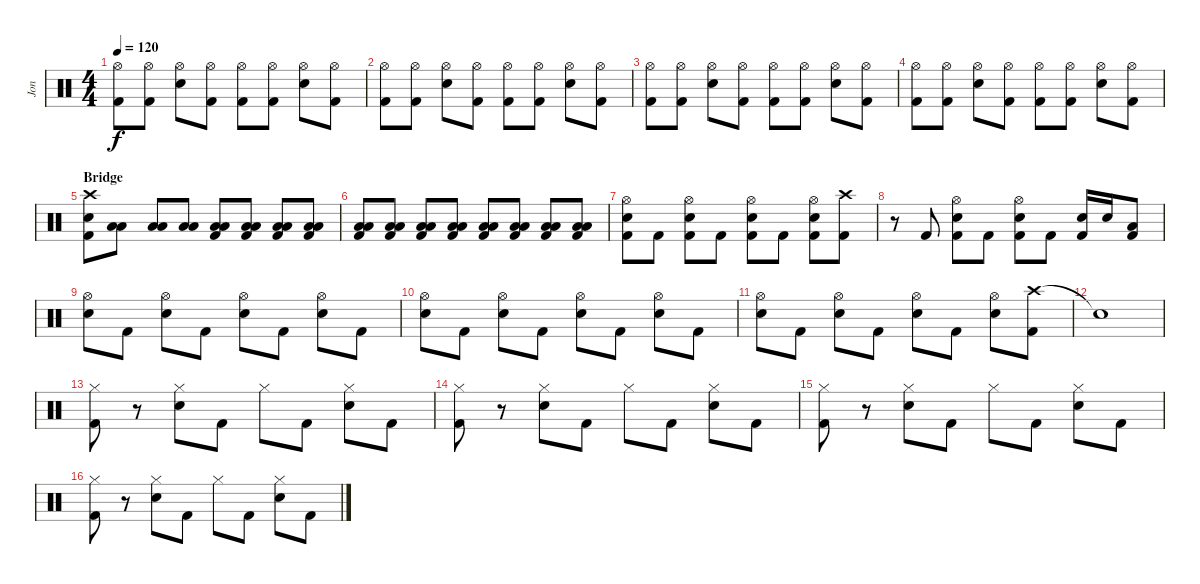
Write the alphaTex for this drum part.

\track ("Jon" "Jon") {instrument percussion}
\staff {score}
\articulation defaults
\ts (4 4)
\tempo 120
\clef neutral
\ks c
("Hi-Hat (open)" "Kick (hit) 2").8{dy f} ("Hi-Hat (open)" "Kick (hit) 2").8 ("Hi-Hat (open)" "Electric Snare (hit)").8 ("Hi-Hat (open)" "Kick (hit) 2").8 ("Hi-Hat (open)" "Kick (hit) 2").8 ("Hi-Hat (open)" "Kick (hit) 2").8 ("Hi-Hat (open)" "Electric Snare (hit)").8 ("Hi-Hat (open)" "Kick (hit) 2").8 |
("Hi-Hat (open)" "Kick (hit) 2").8 ("Hi-Hat (open)" "Kick (hit) 2").8 ("Hi-Hat (open)" "Electric Snare (hit)").8 ("Hi-Hat (open)" "Kick (hit) 2").8 ("Hi-Hat (open)" "Kick (hit) 2").8 ("Hi-Hat (open)" "Kick (hit) 2").8 ("Hi-Hat (open)" "Electric Snare (hit)").8 ("Hi-Hat (open)" "Kick (hit) 2").8 |
("Hi-Hat (open)" "Kick (hit) 2").8 ("Hi-Hat (open)" "Kick (hit) 2").8 ("Hi-Hat (open)" "Electric Snare (hit)").8 ("Hi-Hat (open)" "Kick (hit) 2").8 ("Hi-Hat (open)" "Kick (hit) 2").8 ("Hi-Hat (open)" "Kick (hit) 2").8 ("Hi-Hat (open)" "Electric Snare (hit)").8 ("Hi-Hat (open)" "Kick (hit) 2").8 |
("Hi-Hat (open)" "Kick (hit) 2").8 ("Hi-Hat (open)" "Kick (hit) 2").8 ("Hi-Hat (open)" "Electric Snare (hit)").8 ("Hi-Hat (open)" "Kick (hit) 2").8 ("Hi-Hat (open)" "Kick (hit) 2").8 ("Hi-Hat (open)" "Kick (hit) 2").8 ("Hi-Hat (open)" "Electric Snare (hit)").8 ("Hi-Hat (open)" "Kick (hit) 2").8 |
\section ("" "Bridge")
("Crash high (hit)" "Electric Snare (hit)" "Kick (hit) 2").8 ("Low Tom (hit)" "Low Tom (hit)").8{volume 7} ("Low Tom (hit)" "Low Tom (hit)").8 ("Low Tom (hit)" "Low Tom (hit)").8 ("Low Tom (hit)" "Low Tom (hit)" "Kick (hit) 2").8 ("Low Tom (hit)" "Low Tom (hit)" "Kick (hit) 2").8 ("Low Tom (hit)" "Low Tom (hit)" "Kick (hit) 2").8 ("Low Tom (hit)" "Low Tom (hit)" "Kick (hit) 2").8 |
("Low Tom (hit)" "Low Tom (hit)" "Kick (hit) 2").8{volume 13} ("Low Tom (hit)" "Low Tom (hit)" "Kick (hit) 2").8 ("Low Tom (hit)" "Low Tom (hit)" "Kick (hit) 2").8 ("Low Tom (hit)" "Low Tom (hit)" "Kick (hit) 2").8 ("Low Tom (hit)" "Low Tom (hit)" "Kick (hit) 2").8 ("Low Tom (hit)" "Low Tom (hit)" "Kick (hit) 2").8 ("Low Tom (hit)" "Low Tom (hit)" "Kick (hit) 2").8 ("Low Tom (hit)" "Low Tom (hit)" "Kick (hit) 2").8 |
("Hi-Hat (open)" "Electric Snare (hit)" "Kick (hit) 2").8 "Kick (hit) 2".8 ("Hi-Hat (open)" "Electric Snare (hit)" "Kick (hit) 2").8 "Kick (hit) 2".8 ("Hi-Hat (open)" "Electric Snare (hit)" "Kick (hit) 2").8 "Kick (hit) 2".8 ("Hi-Hat (open)" "Electric Snare (hit)" "Kick (hit) 2").8 ("Crash high (hit)" "Kick (hit) 2").8 |
r.8 "Kick (hit) 2".8 ("Hi-Hat (open)" "Electric Snare (hit)" "Kick (hit) 2").8 "Kick (hit) 2".8 ("Hi-Hat (open)" "Electric Snare (hit)" "Kick (hit) 2").8 "Kick (hit) 2".8 ("Electric Snare (hit)" "Kick (hit) 2").16 "Electric Snare (hit)".16 ("Low Tom (hit)" "Kick (hit) 2").8 |
("Hi-Hat (open)" "Electric Snare (hit)").8 "Kick (hit) 2".8 ("Hi-Hat (open)" "Electric Snare (hit)").8 "Kick (hit) 2".8 ("Hi-Hat (open)" "Electric Snare (hit)").8 "Kick (hit) 2".8 ("Hi-Hat (open)" "Electric Snare (hit)").8 "Kick (hit) 2".8 |
("Hi-Hat (open)" "Electric Snare (hit)").8 "Kick (hit) 2".8 ("Hi-Hat (open)" "Electric Snare (hit)").8 "Kick (hit) 2".8 ("Hi-Hat (open)" "Electric Snare (hit)").8 "Kick (hit) 2".8 ("Hi-Hat (open)" "Electric Snare (hit)").8 "Kick (hit) 2".8 |
("Hi-Hat (open)" "Electric Snare (hit)").8 "Kick (hit) 2".8 ("Hi-Hat (open)" "Electric Snare (hit)").8 "Kick (hit) 2".8 ("Hi-Hat (open)" "Electric Snare (hit)").8 "Kick (hit) 2".8 ("Hi-Hat (open)" "Electric Snare (hit)").8 ("Crash high (hit)" "Kick (hit) 2").8 |
"Snare (hit)"{t}.1 |
("Hi-Hat (closed)" "Kick (hit) 2").8 r.8 ("Hi-Hat (closed)" "Electric Snare (hit)").8 "Kick (hit) 2".8 "Hi-Hat (closed)".8 "Kick (hit) 2".8 ("Hi-Hat (closed)" "Electric Snare (hit)").8 "Kick (hit) 2".8 |
("Hi-Hat (closed)" "Kick (hit) 2").8 r.8 ("Hi-Hat (closed)" "Electric Snare (hit)").8 "Kick (hit) 2".8 "Hi-Hat (closed)".8 "Kick (hit) 2".8 ("Hi-Hat (closed)" "Electric Snare (hit)").8 "Kick (hit) 2".8 |
("Hi-Hat (closed)" "Kick (hit) 2").8 r.8 ("Hi-Hat (closed)" "Electric Snare (hit)").8 "Kick (hit) 2".8 "Hi-Hat (closed)".8 "Kick (hit) 2".8 ("Hi-Hat (closed)" "Electric Snare (hit)").8 "Kick (hit) 2".8 |
("Hi-Hat (closed)" "Kick (hit) 2").8 r.8 ("Hi-Hat (closed)" "Electric Snare (hit)").8 "Kick (hit) 2".8 "Hi-Hat (closed)".8 "Kick (hit) 2".8 ("Hi-Hat (closed)" "Electric Snare (hit)").8 "Kick (hit) 2".8
